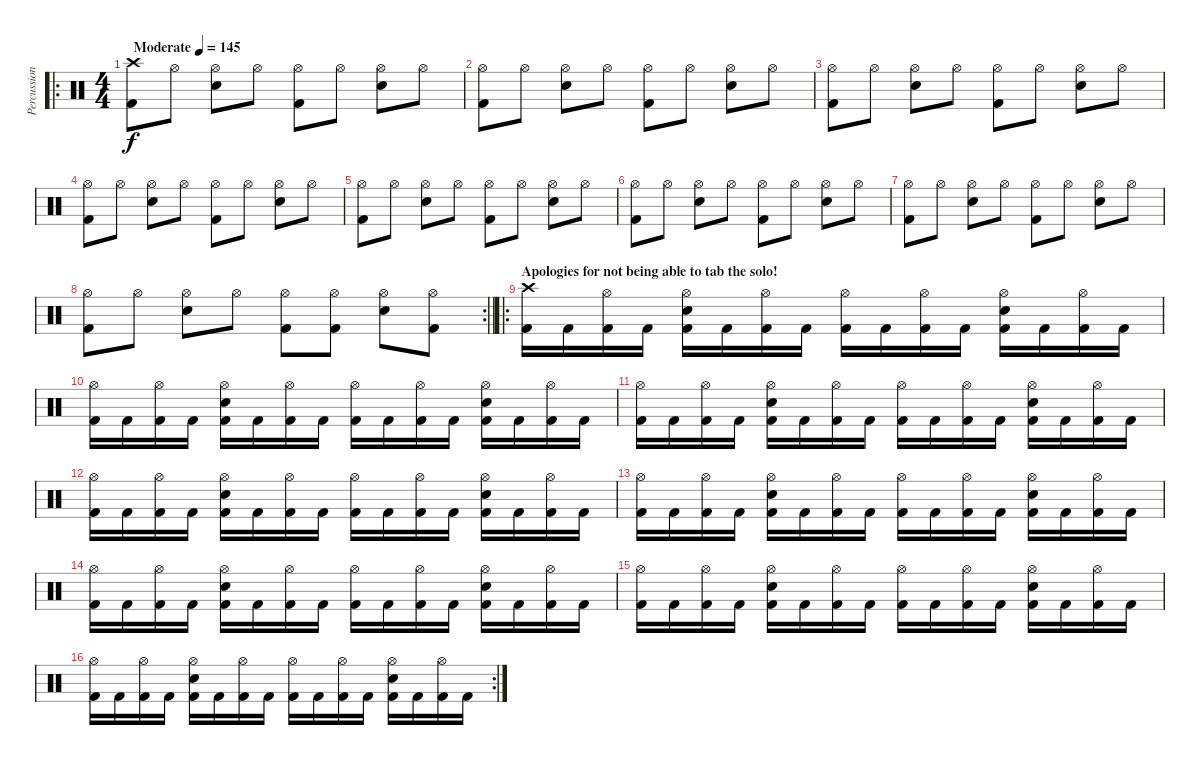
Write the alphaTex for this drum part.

\track ("Percussion" "Percussion") {instrument percussion}
\staff {score}
\articulation defaults
\ro
\ts (4 4)
\tempo (145 "Moderate")
\clef neutral
\ks c
("Crash high (hit)" "Kick (hit) 2").8{dy f} "Hi-Hat (open)".8 ("Hi-Hat (open)" "Electric Snare (hit)").8 "Hi-Hat (open)".8 ("Hi-Hat (open)" "Kick (hit) 2").8 "Hi-Hat (open)".8 ("Hi-Hat (open)" "Electric Snare (hit)").8 "Hi-Hat (open)".8 |
("Hi-Hat (open)" "Kick (hit) 2").8 "Hi-Hat (open)".8 ("Hi-Hat (open)" "Electric Snare (hit)").8 "Hi-Hat (open)".8 ("Hi-Hat (open)" "Kick (hit) 2").8 "Hi-Hat (open)".8 ("Hi-Hat (open)" "Electric Snare (hit)").8 "Hi-Hat (open)".8 |
("Hi-Hat (open)" "Kick (hit) 2").8 "Hi-Hat (open)".8 ("Hi-Hat (open)" "Electric Snare (hit)").8 "Hi-Hat (open)".8 ("Hi-Hat (open)" "Kick (hit) 2").8 "Hi-Hat (open)".8 ("Hi-Hat (open)" "Electric Snare (hit)").8 "Hi-Hat (open)".8 |
("Hi-Hat (open)" "Kick (hit) 2").8 "Hi-Hat (open)".8 ("Hi-Hat (open)" "Electric Snare (hit)").8 "Hi-Hat (open)".8 ("Hi-Hat (open)" "Kick (hit) 2").8 "Hi-Hat (open)".8 ("Hi-Hat (open)" "Electric Snare (hit)").8 "Hi-Hat (open)".8 |
("Hi-Hat (open)" "Kick (hit) 2").8 "Hi-Hat (open)".8 ("Hi-Hat (open)" "Electric Snare (hit)").8 "Hi-Hat (open)".8 ("Hi-Hat (open)" "Kick (hit) 2").8 "Hi-Hat (open)".8 ("Hi-Hat (open)" "Electric Snare (hit)").8 "Hi-Hat (open)".8 |
("Hi-Hat (open)" "Kick (hit) 2").8 "Hi-Hat (open)".8 ("Hi-Hat (open)" "Electric Snare (hit)").8 "Hi-Hat (open)".8 ("Hi-Hat (open)" "Kick (hit) 2").8 "Hi-Hat (open)".8 ("Hi-Hat (open)" "Electric Snare (hit)").8 "Hi-Hat (open)".8 |
("Hi-Hat (open)" "Kick (hit) 2").8 "Hi-Hat (open)".8 ("Hi-Hat (open)" "Electric Snare (hit)").8 "Hi-Hat (open)".8 ("Hi-Hat (open)" "Kick (hit) 2").8 "Hi-Hat (open)".8 ("Hi-Hat (open)" "Electric Snare (hit)").8 "Hi-Hat (open)".8 |
\rc 2
\barLineRight lightlight
("Hi-Hat (open)" "Kick (hit) 2").8 "Hi-Hat (open)".8 ("Hi-Hat (open)" "Electric Snare (hit)").8 "Hi-Hat (open)".8 ("Hi-Hat (open)" "Kick (hit) 2").8 ("Hi-Hat (open)" "Kick (hit) 2").8 ("Hi-Hat (open)" "Electric Snare (hit)").8 ("Hi-Hat (open)" "Kick (hit) 2").8 |
\ro
\section ("" "Apologies for not being able to tab the solo!")
("Crash high (hit)" "Kick (hit) 2").16 "Kick (hit) 2".16 ("Hi-Hat (open)" "Kick (hit) 2").16 "Kick (hit) 2".16 ("Hi-Hat (open)" "Electric Snare (hit)" "Kick (hit) 2").16 "Kick (hit) 2".16 ("Hi-Hat (open)" "Kick (hit) 2").16 "Kick (hit) 2".16 ("Hi-Hat (open)" "Kick (hit) 2").16 "Kick (hit) 2".16 ("Hi-Hat (open)" "Kick (hit) 2").16 "Kick (hit) 2".16 ("Hi-Hat (open)" "Electric Snare (hit)" "Kick (hit) 2").16 "Kick (hit) 2".16 ("Hi-Hat (open)" "Kick (hit) 2").16 "Kick (hit) 2".16 |
("Hi-Hat (open)" "Kick (hit) 2").16 "Kick (hit) 2".16 ("Hi-Hat (open)" "Kick (hit) 2").16 "Kick (hit) 2".16 ("Hi-Hat (open)" "Electric Snare (hit)" "Kick (hit) 2").16 "Kick (hit) 2".16 ("Hi-Hat (open)" "Kick (hit) 2").16 "Kick (hit) 2".16 ("Hi-Hat (open)" "Kick (hit) 2").16 "Kick (hit) 2".16 ("Hi-Hat (open)" "Kick (hit) 2").16 "Kick (hit) 2".16 ("Hi-Hat (open)" "Electric Snare (hit)" "Kick (hit) 2").16 "Kick (hit) 2".16 ("Hi-Hat (open)" "Kick (hit) 2").16 "Kick (hit) 2".16 |
("Hi-Hat (open)" "Kick (hit) 2").16 "Kick (hit) 2".16 ("Hi-Hat (open)" "Kick (hit) 2").16 "Kick (hit) 2".16 ("Hi-Hat (open)" "Electric Snare (hit)" "Kick (hit) 2").16 "Kick (hit) 2".16 ("Hi-Hat (open)" "Kick (hit) 2").16 "Kick (hit) 2".16 ("Hi-Hat (open)" "Kick (hit) 2").16 "Kick (hit) 2".16 ("Hi-Hat (open)" "Kick (hit) 2").16 "Kick (hit) 2".16 ("Hi-Hat (open)" "Electric Snare (hit)" "Kick (hit) 2").16 "Kick (hit) 2".16 ("Hi-Hat (open)" "Kick (hit) 2").16 "Kick (hit) 2".16 |
("Hi-Hat (open)" "Kick (hit) 2").16 "Kick (hit) 2".16 ("Hi-Hat (open)" "Kick (hit) 2").16 "Kick (hit) 2".16 ("Hi-Hat (open)" "Electric Snare (hit)" "Kick (hit) 2").16 "Kick (hit) 2".16 ("Hi-Hat (open)" "Kick (hit) 2").16 "Kick (hit) 2".16 ("Hi-Hat (open)" "Kick (hit) 2").16 "Kick (hit) 2".16 ("Hi-Hat (open)" "Kick (hit) 2").16 "Kick (hit) 2".16 ("Hi-Hat (open)" "Electric Snare (hit)" "Kick (hit) 2").16 "Kick (hit) 2".16 ("Hi-Hat (open)" "Kick (hit) 2").16 "Kick (hit) 2".16 |
("Hi-Hat (open)" "Kick (hit) 2").16 "Kick (hit) 2".16 ("Hi-Hat (open)" "Kick (hit) 2").16 "Kick (hit) 2".16 ("Hi-Hat (open)" "Electric Snare (hit)" "Kick (hit) 2").16 "Kick (hit) 2".16 ("Hi-Hat (open)" "Kick (hit) 2").16 "Kick (hit) 2".16 ("Hi-Hat (open)" "Kick (hit) 2").16 "Kick (hit) 2".16 ("Hi-Hat (open)" "Kick (hit) 2").16 "Kick (hit) 2".16 ("Hi-Hat (open)" "Electric Snare (hit)" "Kick (hit) 2").16 "Kick (hit) 2".16 ("Hi-Hat (open)" "Kick (hit) 2").16 "Kick (hit) 2".16 |
("Hi-Hat (open)" "Kick (hit) 2").16 "Kick (hit) 2".16 ("Hi-Hat (open)" "Kick (hit) 2").16 "Kick (hit) 2".16 ("Hi-Hat (open)" "Electric Snare (hit)" "Kick (hit) 2").16 "Kick (hit) 2".16 ("Hi-Hat (open)" "Kick (hit) 2").16 "Kick (hit) 2".16 ("Hi-Hat (open)" "Kick (hit) 2").16 "Kick (hit) 2".16 ("Hi-Hat (open)" "Kick (hit) 2").16 "Kick (hit) 2".16 ("Hi-Hat (open)" "Electric Snare (hit)" "Kick (hit) 2").16 "Kick (hit) 2".16 ("Hi-Hat (open)" "Kick (hit) 2").16 "Kick (hit) 2".16 |
("Hi-Hat (open)" "Kick (hit) 2").16 "Kick (hit) 2".16 ("Hi-Hat (open)" "Kick (hit) 2").16 "Kick (hit) 2".16 ("Hi-Hat (open)" "Electric Snare (hit)" "Kick (hit) 2").16 "Kick (hit) 2".16 ("Hi-Hat (open)" "Kick (hit) 2").16 "Kick (hit) 2".16 ("Hi-Hat (open)" "Kick (hit) 2").16 "Kick (hit) 2".16 ("Hi-Hat (open)" "Kick (hit) 2").16 "Kick (hit) 2".16 ("Hi-Hat (open)" "Electric Snare (hit)" "Kick (hit) 2").16 "Kick (hit) 2".16 ("Hi-Hat (open)" "Kick (hit) 2").16 "Kick (hit) 2".16 |
\rc 2
("Hi-Hat (open)" "Kick (hit) 2").16 "Kick (hit) 2".16 ("Hi-Hat (open)" "Kick (hit) 2").16 "Kick (hit) 2".16 ("Hi-Hat (open)" "Electric Snare (hit)" "Kick (hit) 2").16 "Kick (hit) 2".16 ("Hi-Hat (open)" "Kick (hit) 2").16 "Kick (hit) 2".16 ("Hi-Hat (open)" "Kick (hit) 2").16 "Kick (hit) 2".16 ("Hi-Hat (open)" "Kick (hit) 2").16 "Kick (hit) 2".16 ("Hi-Hat (open)" "Electric Snare (hit)" "Kick (hit) 2").16 "Kick (hit) 2".16 ("Hi-Hat (open)" "Kick (hit) 2").16 "Kick (hit) 2".16
